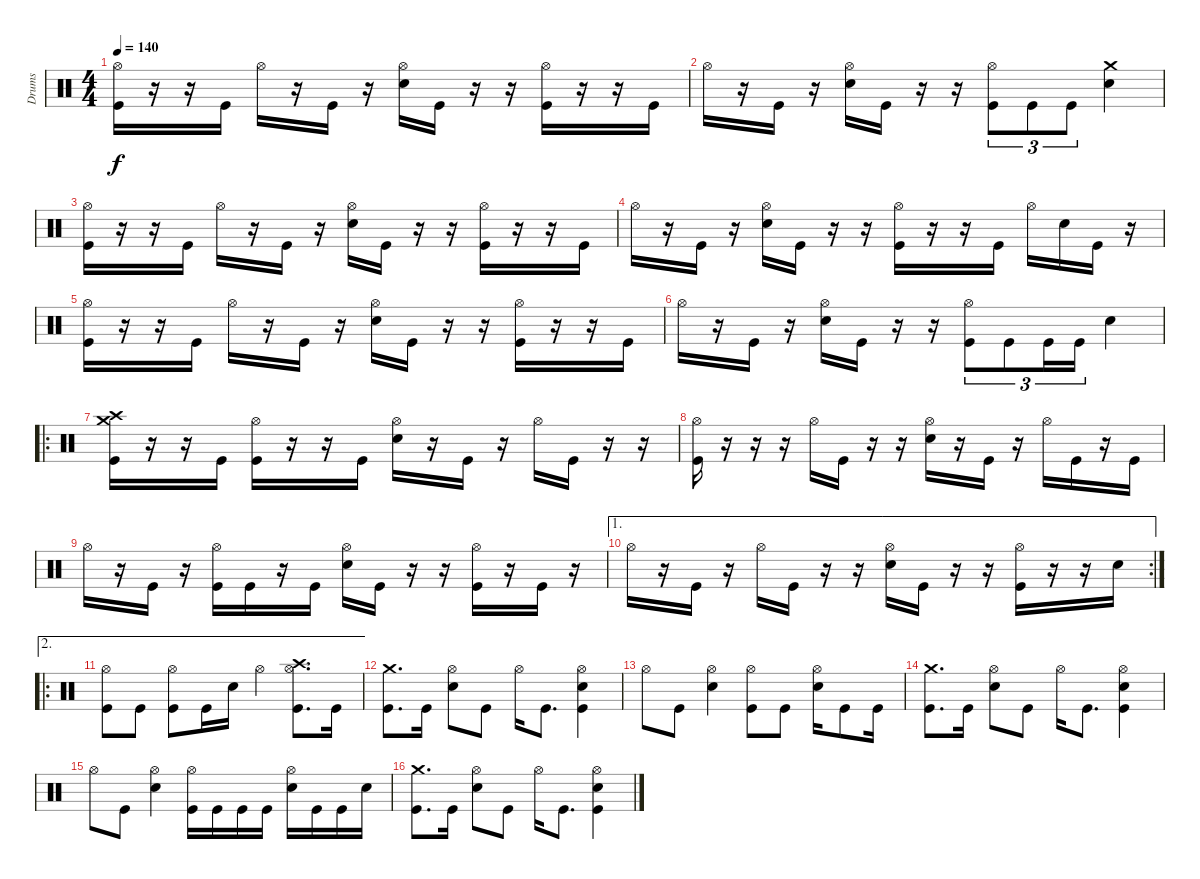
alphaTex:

\track ("Drums" "Drums") {instrument percussion}
\staff {score}
\articulation defaults
\ts (4 4)
\tempo 140
\clef neutral
\ks c
("Hi-Hat (open)" "Kick (hit)").16{dy f} r.16 r.16 "Kick (hit)".16 "Hi-Hat (open)".16 r.16 "Kick (hit)".16 r.16 ("Hi-Hat (open)" "Snare (hit) 2").16 "Kick (hit)".16 r.16 r.16 ("Hi-Hat (open)" "Kick (hit)").16 r.16 r.16 "Kick (hit)".16 |
"Hi-Hat (open)".16 r.16 "Kick (hit)".16 r.16 ("Hi-Hat (open)" "Snare (hit) 2").16 "Kick (hit)".16 r.16 r.16 ("Hi-Hat (open)" "Kick (hit)").8{tu (3 2)} "Kick (hit)".8{tu (3 2)} "Kick (hit)".8{tu (3 2)} ("Crash medium (hit)" "Snare (hit) 2").4 |
("Hi-Hat (open)" "Kick (hit)").16 r.16 r.16 "Kick (hit)".16 "Hi-Hat (open)".16 r.16 "Kick (hit)".16 r.16 ("Hi-Hat (open)" "Snare (hit) 2").16 "Kick (hit)".16 r.16 r.16 ("Hi-Hat (open)" "Kick (hit)").16 r.16 r.16 "Kick (hit)".16 |
"Hi-Hat (open)".16 r.16 "Kick (hit)".16 r.16 ("Hi-Hat (open)" "Snare (hit) 2").16 "Kick (hit)".16 r.16 r.16 ("Hi-Hat (open)" "Kick (hit)").16 r.16 r.16 "Kick (hit)".16 "Hi-Hat (open)".16 "Snare (hit) 2".16 "Kick (hit)".16 r.16 |
("Hi-Hat (open)" "Kick (hit)").16 r.16 r.16 "Kick (hit)".16 "Hi-Hat (open)".16 r.16 "Kick (hit)".16 r.16 ("Hi-Hat (open)" "Snare (hit) 2").16 "Kick (hit)".16 r.16 r.16 ("Hi-Hat (open)" "Kick (hit)").16 r.16 r.16 "Kick (hit)".16 |
"Hi-Hat (open)".16 r.16 "Kick (hit)".16 r.16 ("Hi-Hat (open)" "Snare (hit) 2").16 "Kick (hit)".16 r.16 r.16 ("Hi-Hat (open)" "Kick (hit)").8{tu (3 2)} "Kick (hit)".8{tu (3 2)} "Kick (hit)".16{tu (3 2)} "Kick (hit)".16{tu (3 2)} "Snare (hit) 2".4 |
\ro
("Crash medium (hit)" "Crash high (hit)" "Kick (hit)").16 r.16 r.16 "Kick (hit)".16 ("Hi-Hat (open)" "Kick (hit)").16 r.16 r.16 "Kick (hit)".16 ("Hi-Hat (open)" "Snare (hit) 2").16 r.16 "Kick (hit)".16 r.16 "Hi-Hat (open)".16 "Kick (hit)".16 r.16 r.16 |
("Hi-Hat (open)" "Kick (hit)").16 r.16 r.16 r.16 "Hi-Hat (open)".16 "Kick (hit)".16 r.16 r.16 ("Hi-Hat (open)" "Snare (hit) 2").16 r.16 "Kick (hit)".16 r.16 "Hi-Hat (open)".16 "Kick (hit)".16 r.16 "Kick (hit)".16 |
"Hi-Hat (open)".16 r.16 "Kick (hit)".16 r.16 ("Hi-Hat (open)" "Kick (hit)").16 "Kick (hit)".16 r.16 "Kick (hit)".16 ("Hi-Hat (open)" "Snare (hit) 2").16 "Kick (hit)".16 r.16 r.16 ("Hi-Hat (open)" "Kick (hit)").16 r.16 "Kick (hit)".16 r.16 |
\ae 1
\rc 2 "Hi-Hat (open)".16
r.16 "Kick (hit)".16 r.16 "Hi-Hat (open)".16 "Kick (hit)".16 r.16 r.16 ("Hi-Hat (open)" "Snare (hit) 2").16 "Kick (hit)".16 r.16 r.16 ("Hi-Hat (open)" "Kick (hit)").16 r.16 r.16 "Snare (hit) 2".16 |
\ae 2
\ro
("Hi-Hat (open)" "Kick (hit)").8 "Kick (hit)".8 ("Hi-Hat (open)" "Kick (hit)").8 "Kick (hit)".16 "Snare (hit) 2".16 "Hi-Hat (open)".4 ("Crash high (hit)" "Hi-Hat (open)" "Kick (hit)").8{d} "Kick (hit)".16 |
("Crash medium (hit)" "Kick (hit)").8{d} "Kick (hit)".16 ("Hi-Hat (open)" "Snare (hit) 2").8 "Kick (hit)".8 "Hi-Hat (open)".16 "Kick (hit)".8{d} ("Hi-Hat (open)" "Snare (hit) 2" "Kick (hit)").4 |
"Hi-Hat (open)".8 "Kick (hit)".8 ("Hi-Hat (open)" "Snare (hit) 2").4 ("Hi-Hat (open)" "Kick (hit)").8 "Kick (hit)".8 ("Hi-Hat (open)" "Snare (hit) 2").16 "Kick (hit)".8 "Kick (hit)".16 |
("Crash medium (hit)" "Kick (hit)").8{d} "Kick (hit)".16 ("Hi-Hat (open)" "Snare (hit) 2").8 "Kick (hit)".8 "Hi-Hat (open)".16 "Kick (hit)".8{d} ("Hi-Hat (open)" "Snare (hit) 2" "Kick (hit)").4 |
"Hi-Hat (open)".8 "Kick (hit)".8 ("Hi-Hat (open)" "Snare (hit) 2").4 ("Hi-Hat (open)" "Kick (hit)").16 "Kick (hit)".16 "Kick (hit)".16 "Kick (hit)".16 ("Hi-Hat (open)" "Snare (hit) 2").16 "Kick (hit)".16 "Kick (hit)".16 "Snare (hit) 2".16 |
("Crash medium (hit)" "Kick (hit)").8{d} "Kick (hit)".16 ("Hi-Hat (open)" "Snare (hit) 2").8 "Kick (hit)".8 "Hi-Hat (open)".16 "Kick (hit)".8{d} ("Hi-Hat (open)" "Snare (hit) 2" "Kick (hit)").4
